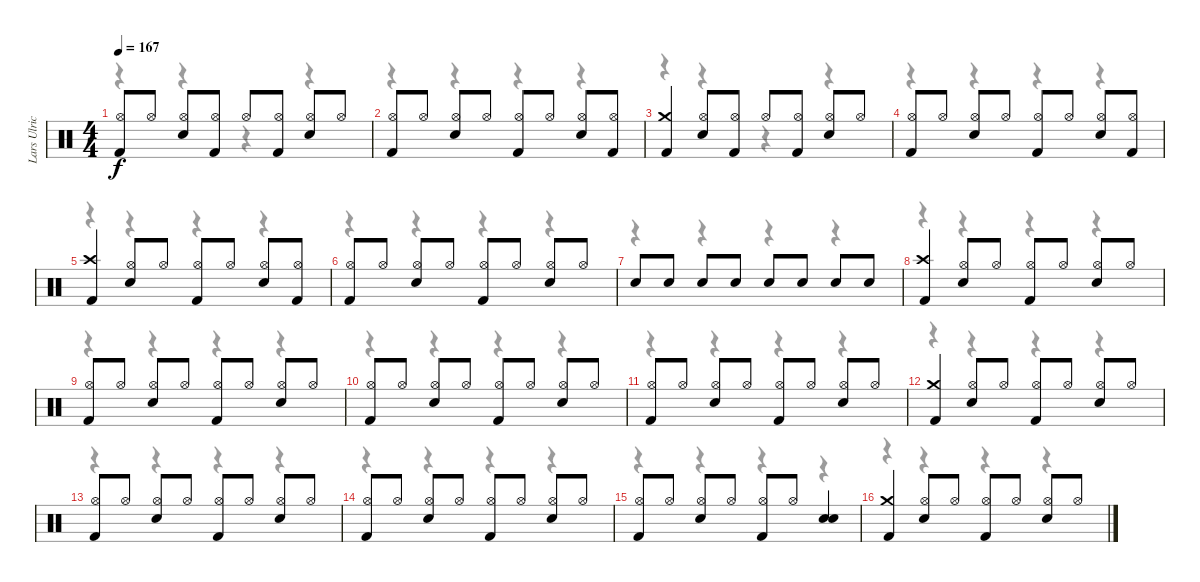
\track ("Lars Ulrich" "Lars Ulric") {instrument percussion}
\staff {score}
\articulation defaults
\voice
\ts (4 4)
\tempo 167
\clef neutral
\ks c
("Hi-Hat (open)" "Kick (hit) 2").8{dy f} "Hi-Hat (open)".8 ("Hi-Hat (open)" "Snare (hit) 2").8 ("Hi-Hat (open)" "Kick (hit) 2").8 "Hi-Hat (open)".8 ("Hi-Hat (open)" "Kick (hit) 2").8 ("Hi-Hat (open)" "Snare (hit) 2").8 "Hi-Hat (open)".8 |
("Hi-Hat (open)" "Kick (hit) 2").8 "Hi-Hat (open)".8 ("Hi-Hat (open)" "Snare (hit) 2").8 "Hi-Hat (open)".8 ("Hi-Hat (open)" "Kick (hit) 2").8 "Hi-Hat (open)".8 ("Hi-Hat (open)" "Snare (hit) 2").8 ("Hi-Hat (open)" "Kick (hit) 2").8 |
("Crash medium (hit)" "Kick (hit) 2").4 ("Hi-Hat (open)" "Snare (hit) 2").8 ("Hi-Hat (open)" "Kick (hit) 2").8 "Hi-Hat (open)".8 ("Hi-Hat (open)" "Kick (hit) 2").8 ("Hi-Hat (open)" "Snare (hit) 2").8 "Hi-Hat (open)".8 |
("Hi-Hat (open)" "Kick (hit) 2").8 "Hi-Hat (open)".8 ("Hi-Hat (open)" "Snare (hit) 2").8 "Hi-Hat (open)".8 ("Hi-Hat (open)" "Kick (hit) 2").8 "Hi-Hat (open)".8 ("Hi-Hat (open)" "Snare (hit) 2").8 ("Hi-Hat (open)" "Kick (hit) 2").8 |
("Crash high (hit)" "Kick (hit) 2").4 ("Hi-Hat (open)" "Snare (hit) 2").8 "Hi-Hat (open)".8 ("Hi-Hat (open)" "Kick (hit) 2").8 "Hi-Hat (open)".8 ("Hi-Hat (open)" "Snare (hit) 2").8 ("Hi-Hat (open)" "Kick (hit) 2").8 |
("Hi-Hat (open)" "Kick (hit) 2").8 "Hi-Hat (open)".8 ("Hi-Hat (open)" "Snare (hit) 2").8 "Hi-Hat (open)".8 ("Hi-Hat (open)" "Kick (hit) 2").8 "Hi-Hat (open)".8 ("Hi-Hat (open)" "Snare (hit) 2").8 "Hi-Hat (open)".8 |
"Snare (hit) 2".8 "Snare (hit) 2".8 "Snare (hit) 2".8 "Snare (hit) 2".8 "Snare (hit) 2".8 "Snare (hit) 2".8 "Snare (hit) 2".8 "Snare (hit) 2".8 |
("Crash high (hit)" "Kick (hit) 2").4 ("Hi-Hat (open)" "Snare (hit) 2").8 "Hi-Hat (open)".8 ("Hi-Hat (open)" "Kick (hit) 2").8 "Hi-Hat (open)".8 ("Hi-Hat (open)" "Snare (hit) 2").8 "Hi-Hat (open)".8 |
("Hi-Hat (open)" "Kick (hit) 2").8 "Hi-Hat (open)".8 ("Hi-Hat (open)" "Snare (hit) 2").8 "Hi-Hat (open)".8 ("Hi-Hat (open)" "Kick (hit) 2").8 "Hi-Hat (open)".8 ("Hi-Hat (open)" "Snare (hit) 2").8 "Hi-Hat (open)".8 |
("Hi-Hat (open)" "Kick (hit) 2").8 "Hi-Hat (open)".8 ("Hi-Hat (open)" "Snare (hit) 2").8 "Hi-Hat (open)".8 ("Hi-Hat (open)" "Kick (hit) 2").8 "Hi-Hat (open)".8 ("Hi-Hat (open)" "Snare (hit) 2").8 "Hi-Hat (open)".8 |
("Hi-Hat (open)" "Kick (hit) 2").8 "Hi-Hat (open)".8 ("Hi-Hat (open)" "Snare (hit) 2").8 "Hi-Hat (open)".8 ("Hi-Hat (open)" "Kick (hit) 2").8 "Hi-Hat (open)".8 ("Hi-Hat (open)" "Snare (hit) 2").8 "Hi-Hat (open)".8 |
("Crash medium (hit)" "Kick (hit) 2").4 ("Hi-Hat (open)" "Snare (hit) 2").8 "Hi-Hat (open)".8 ("Hi-Hat (open)" "Kick (hit) 2").8 "Hi-Hat (open)".8 ("Hi-Hat (open)" "Snare (hit) 2").8 "Hi-Hat (open)".8 |
("Hi-Hat (open)" "Kick (hit) 2").8 "Hi-Hat (open)".8 ("Hi-Hat (open)" "Snare (hit) 2").8 "Hi-Hat (open)".8 ("Hi-Hat (open)" "Kick (hit) 2").8 "Hi-Hat (open)".8 ("Hi-Hat (open)" "Snare (hit) 2").8 "Hi-Hat (open)".8 |
("Hi-Hat (open)" "Kick (hit) 2").8 "Hi-Hat (open)".8 ("Hi-Hat (open)" "Snare (hit) 2").8 "Hi-Hat (open)".8 ("Hi-Hat (open)" "Kick (hit) 2").8 "Hi-Hat (open)".8 ("Hi-Hat (open)" "Snare (hit) 2").8 "Hi-Hat (open)".8 |
("Hi-Hat (open)" "Kick (hit) 2").8 "Hi-Hat (open)".8 ("Hi-Hat (open)" "Snare (hit) 2").8 "Hi-Hat (open)".8 ("Hi-Hat (open)" "Kick (hit) 2").8 "Hi-Hat (open)".8 ("Snare (hit) 2" "Snare (hit) 2").4 |
("Crash medium (hit)" "Kick (hit) 2").4 ("Hi-Hat (open)" "Snare (hit) 2").8 "Hi-Hat (open)".8 ("Hi-Hat (open)" "Kick (hit) 2").8 "Hi-Hat (open)".8 ("Hi-Hat (open)" "Snare (hit) 2").8 "Hi-Hat (open)".8
\voice
\clef neutral
\ottava regular
\simile none
\ks c
r.4{dy f} r.4 r.4 r.4 |
r.4 r.4 r.4 r.4 |
r.4 r.4 r.4 r.4 |
r.4 r.4 r.4 r.4 |
r.4 r.4 r.4 r.4 |
r.4 r.4 r.4 r.4 |
r.4 r.4 r.4 r.4 |
r.4 r.4 r.4 r.4 |
r.4 r.4 r.4 r.4 |
r.4 r.4 r.4 r.4 |
r.4 r.4 r.4 r.4 |
r.4 r.4 r.4 r.4 |
r.4 r.4 r.4 r.4 |
r.4 r.4 r.4 r.4 |
r.4 r.4 r.4 r.4 |
r.4 r.4 r.4 r.4
